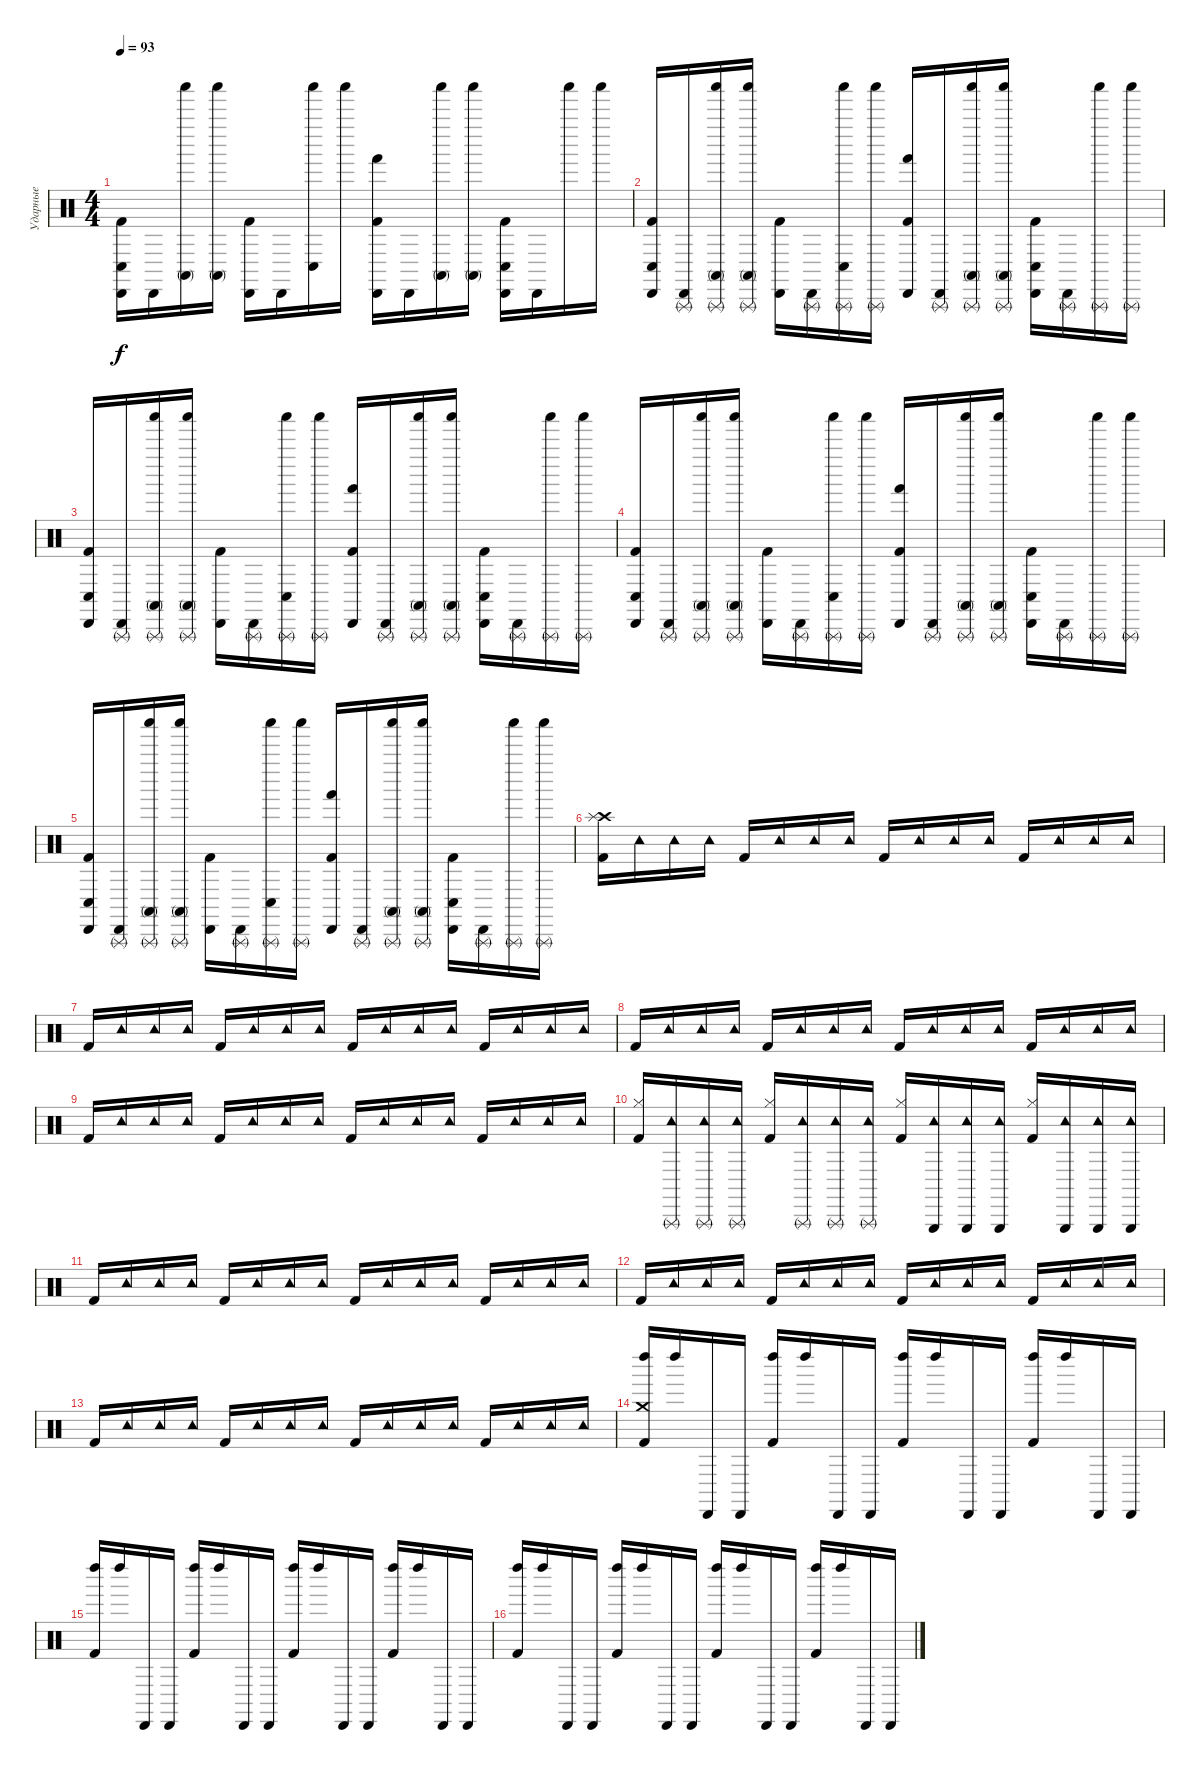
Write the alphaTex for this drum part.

\track ("Ударные" "Ударные") {solo instrument percussion}
\staff {score}
\articulation defaults
\ts (4 4)
\tempo 93
\clef neutral
\ks c
("Kick (hit) 2" "Conga low (hit)" "Cabasa (hit)").16{dy f} "Cabasa (hit)".16 ("Conga high (mute)" "Shaker (hit)").16 ("Conga high (mute)" "Shaker (hit)").16 ("Kick (hit) 2" "Cabasa (hit)").16 "Cabasa (hit)".16 ("Conga low (hit)" "Shaker (hit)").16 "Shaker (hit)".16 ("Kick (hit) 2" "Hand (hit)" "Cabasa (hit)").16 "Cabasa (hit)".16 ("Conga high (mute)" "Shaker (hit)").16 ("Conga high (mute)" "Shaker (hit)").16 ("Kick (hit) 2" "Conga low (hit)" "Cabasa (hit)").16 "Cabasa (hit)".16 "Shaker (hit)".16 "Shaker (hit)".16 |
("Kick (hit) 2" "Conga low (hit)" "Cabasa (hit)").16 ("Triangle (rnute)" "Cabasa (hit)").16 ("Triangle (rnute)" "Conga high (mute)" "Shaker (hit)").16 ("Triangle (rnute)" "Conga high (mute)" "Shaker (hit)").16 ("Kick (hit) 2" "Cabasa (hit)").16 ("Triangle (rnute)" "Cabasa (hit)").16 ("Triangle (rnute)" "Conga low (hit)" "Shaker (hit)").16 ("Triangle (rnute)" "Shaker (hit)").16 ("Kick (hit) 2" "Hand (hit)" "Cabasa (hit)").16 ("Triangle (rnute)" "Cabasa (hit)").16 ("Triangle (rnute)" "Conga high (mute)" "Shaker (hit)").16 ("Triangle (rnute)" "Conga high (mute)" "Shaker (hit)").16 ("Kick (hit) 2" "Conga low (hit)" "Cabasa (hit)").16 ("Triangle (rnute)" "Cabasa (hit)").16 ("Triangle (rnute)" "Shaker (hit)").16 ("Triangle (rnute)" "Shaker (hit)").16 |
("Kick (hit) 2" "Conga low (hit)" "Cabasa (hit)").16 ("Triangle (rnute)" "Cabasa (hit)").16 ("Triangle (rnute)" "Conga high (mute)" "Shaker (hit)").16 ("Triangle (rnute)" "Conga high (mute)" "Shaker (hit)").16 ("Kick (hit) 2" "Cabasa (hit)").16 ("Triangle (rnute)" "Cabasa (hit)").16 ("Triangle (rnute)" "Conga low (hit)" "Shaker (hit)").16 ("Triangle (rnute)" "Shaker (hit)").16 ("Kick (hit) 2" "Hand (hit)" "Cabasa (hit)").16 ("Triangle (rnute)" "Cabasa (hit)").16 ("Triangle (rnute)" "Conga high (mute)" "Shaker (hit)").16 ("Triangle (rnute)" "Conga high (mute)" "Shaker (hit)").16 ("Kick (hit) 2" "Conga low (hit)" "Cabasa (hit)").16 ("Triangle (rnute)" "Cabasa (hit)").16 ("Triangle (rnute)" "Shaker (hit)").16 ("Triangle (rnute)" "Shaker (hit)").16 |
("Kick (hit) 2" "Conga low (hit)" "Cabasa (hit)").16 ("Triangle (rnute)" "Cabasa (hit)").16 ("Triangle (rnute)" "Conga high (mute)" "Shaker (hit)").16 ("Triangle (rnute)" "Conga high (mute)" "Shaker (hit)").16 ("Kick (hit) 2" "Cabasa (hit)").16 ("Triangle (rnute)" "Cabasa (hit)").16 ("Triangle (rnute)" "Conga low (hit)" "Shaker (hit)").16 ("Triangle (rnute)" "Shaker (hit)").16 ("Kick (hit) 2" "Hand (hit)" "Cabasa (hit)").16 ("Triangle (rnute)" "Cabasa (hit)").16 ("Triangle (rnute)" "Conga high (mute)" "Shaker (hit)").16 ("Triangle (rnute)" "Conga high (mute)" "Shaker (hit)").16 ("Kick (hit) 2" "Conga low (hit)" "Cabasa (hit)").16 ("Triangle (rnute)" "Cabasa (hit)").16 ("Triangle (rnute)" "Shaker (hit)").16 ("Triangle (rnute)" "Shaker (hit)").16 |
("Kick (hit) 2" "Conga low (hit)" "Cabasa (hit)").16 ("Triangle (rnute)" "Cabasa (hit)").16 ("Triangle (rnute)" "Conga high (mute)" "Shaker (hit)").16 ("Triangle (rnute)" "Conga high (mute)" "Shaker (hit)").16 ("Kick (hit) 2" "Cabasa (hit)").16 ("Triangle (rnute)" "Cabasa (hit)").16 ("Triangle (rnute)" "Conga low (hit)" "Shaker (hit)").16 ("Triangle (rnute)" "Shaker (hit)").16 ("Kick (hit) 2" "Hand (hit)" "Cabasa (hit)").16 ("Triangle (rnute)" "Cabasa (hit)").16 ("Triangle (rnute)" "Conga high (mute)" "Shaker (hit)").16 ("Triangle (rnute)" "Conga high (mute)" "Shaker (hit)").16 ("Kick (hit) 2" "Conga low (hit)" "Cabasa (hit)").16 ("Triangle (rnute)" "Cabasa (hit)").16 ("Triangle (rnute)" "Shaker (hit)").16 ("Triangle (rnute)" "Shaker (hit)").16 |
("Kick (hit) 2" "Crash high (hit)" "Splash (hit)").16 "Tambourine (hit)".16 "Tambourine (hit)".16 "Tambourine (hit)".16 "Kick (hit) 2".16 "Tambourine (hit)".16 "Tambourine (hit)".16 "Tambourine (hit)".16 "Kick (hit) 2".16 "Tambourine (hit)".16 "Tambourine (hit)".16 "Tambourine (hit)".16 "Kick (hit) 2".16 "Tambourine (hit)".16 "Tambourine (hit)".16 "Tambourine (hit)".16 |
"Kick (hit) 2".16 "Tambourine (hit)".16 "Tambourine (hit)".16 "Tambourine (hit)".16 "Kick (hit) 2".16 "Tambourine (hit)".16 "Tambourine (hit)".16 "Tambourine (hit)".16 "Kick (hit) 2".16 "Tambourine (hit)".16 "Tambourine (hit)".16 "Tambourine (hit)".16 "Kick (hit) 2".16 "Tambourine (hit)".16 "Tambourine (hit)".16 "Tambourine (hit)".16 |
"Kick (hit) 2".16 "Tambourine (hit)".16 "Tambourine (hit)".16 "Tambourine (hit)".16 "Kick (hit) 2".16 "Tambourine (hit)".16 "Tambourine (hit)".16 "Tambourine (hit)".16 "Kick (hit) 2".16 "Tambourine (hit)".16 "Tambourine (hit)".16 "Tambourine (hit)".16 "Kick (hit) 2".16 "Tambourine (hit)".16 "Tambourine (hit)".16 "Tambourine (hit)".16 |
"Kick (hit) 2".16 "Tambourine (hit)".16 "Tambourine (hit)".16 "Tambourine (hit)".16 "Kick (hit) 2".16 "Tambourine (hit)".16 "Tambourine (hit)".16 "Tambourine (hit)".16 "Kick (hit) 2".16 "Tambourine (hit)".16 "Tambourine (hit)".16 "Tambourine (hit)".16 "Kick (hit) 2".16 "Tambourine (hit)".16 "Tambourine (hit)".16 "Tambourine (hit)".16 |
("Kick (hit) 2" "Hi-Hat (closed)").16 ("Tambourine (hit)" "Triangle (rnute)").16 ("Tambourine (hit)" "Triangle (rnute)").16 ("Tambourine (hit)" "Triangle (rnute)").16 ("Kick (hit) 2" "Hi-Hat (closed)").16 ("Tambourine (hit)" "Triangle (rnute)").16 ("Tambourine (hit)" "Triangle (rnute)").16 ("Tambourine (hit)" "Triangle (rnute)").16 ("Kick (hit) 2" "Hi-Hat (closed)").16 ("Tambourine (hit)" "Triangle (hit)").16 ("Tambourine (hit)" "Triangle (hit)").16 ("Tambourine (hit)" "Triangle (hit)").16 ("Kick (hit) 2" "Hi-Hat (closed)").16 ("Tambourine (hit)" "Triangle (hit)").16 ("Tambourine (hit)" "Triangle (hit)").16 ("Tambourine (hit)" "Triangle (hit)").16 |
"Kick (hit) 2".16 "Tambourine (hit)".16 "Tambourine (hit)".16 "Tambourine (hit)".16 "Kick (hit) 2".16 "Tambourine (hit)".16 "Tambourine (hit)".16 "Tambourine (hit)".16 "Kick (hit) 2".16 "Tambourine (hit)".16 "Tambourine (hit)".16 "Tambourine (hit)".16 "Kick (hit) 2".16 "Tambourine (hit)".16 "Tambourine (hit)".16 "Tambourine (hit)".16 |
"Kick (hit) 2".16 "Tambourine (hit)".16 "Tambourine (hit)".16 "Tambourine (hit)".16 "Kick (hit) 2".16 "Tambourine (hit)".16 "Tambourine (hit)".16 "Tambourine (hit)".16 "Kick (hit) 2".16 "Tambourine (hit)".16 "Tambourine (hit)".16 "Tambourine (hit)".16 "Kick (hit) 2".16 "Tambourine (hit)".16 "Tambourine (hit)".16 "Tambourine (hit)".16 |
"Kick (hit) 2".16 "Tambourine (hit)".16 "Tambourine (hit)".16 "Tambourine (hit)".16 "Kick (hit) 2".16 "Tambourine (hit)".16 "Tambourine (hit)".16 "Tambourine (hit)".16 "Kick (hit) 2".16 "Tambourine (hit)".16 "Tambourine (hit)".16 "Tambourine (hit)".16 "Kick (hit) 2".16 "Tambourine (hit)".16 "Tambourine (hit)".16 "Tambourine (hit)".16 |
("Kick (hit) 2" "Left Maraca (hit)" "Crash medium (hit)").16 "Left Maraca (hit)".16 "Cabasa (hit)".16 "Cabasa (hit)".16 ("Kick (hit) 2" "Left Maraca (hit)").16 "Left Maraca (hit)".16 "Cabasa (hit)".16 "Cabasa (hit)".16 ("Kick (hit) 2" "Left Maraca (hit)").16 "Left Maraca (hit)".16 "Cabasa (hit)".16 "Cabasa (hit)".16 ("Kick (hit) 2" "Left Maraca (hit)").16 "Left Maraca (hit)".16 "Cabasa (hit)".16 "Cabasa (hit)".16 |
("Kick (hit) 2" "Left Maraca (hit)").16 "Left Maraca (hit)".16 "Cabasa (hit)".16 "Cabasa (hit)".16 ("Kick (hit) 2" "Left Maraca (hit)").16 "Left Maraca (hit)".16 "Cabasa (hit)".16 "Cabasa (hit)".16 ("Kick (hit) 2" "Left Maraca (hit)").16 "Left Maraca (hit)".16 "Cabasa (hit)".16 "Cabasa (hit)".16 ("Kick (hit) 2" "Left Maraca (hit)").16 "Left Maraca (hit)".16 "Cabasa (hit)".16 "Cabasa (hit)".16 |
("Kick (hit) 2" "Left Maraca (hit)").16 "Left Maraca (hit)".16 "Cabasa (hit)".16 "Cabasa (hit)".16 ("Kick (hit) 2" "Left Maraca (hit)").16 "Left Maraca (hit)".16 "Cabasa (hit)".16 "Cabasa (hit)".16 ("Kick (hit) 2" "Left Maraca (hit)").16 "Left Maraca (hit)".16 "Cabasa (hit)".16 "Cabasa (hit)".16 ("Kick (hit) 2" "Left Maraca (hit)").16 "Left Maraca (hit)".16 "Cabasa (hit)".16 "Cabasa (hit)".16
